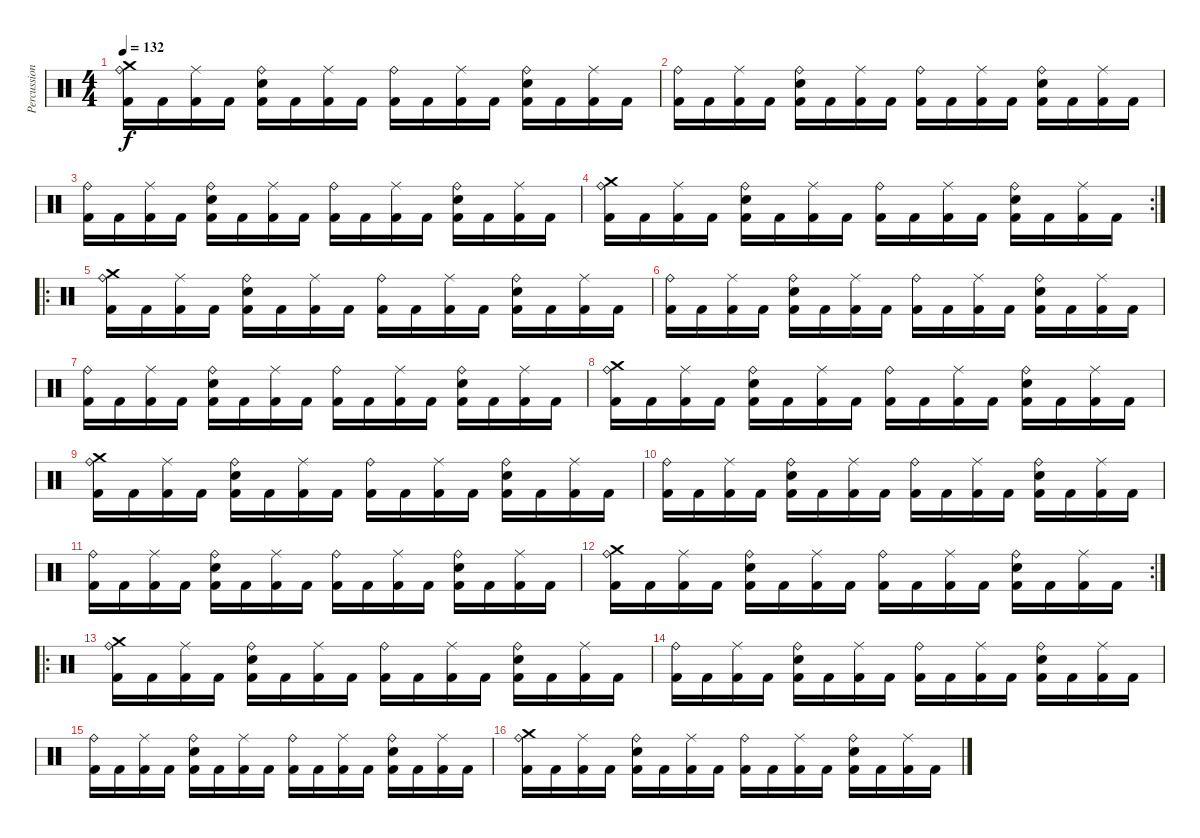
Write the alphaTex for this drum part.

\track ("Percussion" "Percussion") {instrument percussion}
\staff {score}
\articulation defaults
\ts (4 4)
\tempo 132
\clef neutral
\ks c
("Kick (hit) 2" "Ride (bell)" "Crash medium (hit)").16{dy f} "Kick (hit) 2".16 ("Kick (hit) 2" "Ride (middle)").16 "Kick (hit) 2".16 ("Kick (hit) 2" "Electric Snare (hit)" "Ride (bell)").16 "Kick (hit) 2".16 ("Kick (hit) 2" "Ride (middle)").16 "Kick (hit) 2".16 ("Kick (hit) 2" "Ride (bell)").16 "Kick (hit) 2".16 ("Kick (hit) 2" "Ride (middle)").16 "Kick (hit) 2".16 ("Kick (hit) 2" "Electric Snare (hit)" "Ride (bell)").16 "Kick (hit) 2".16 ("Kick (hit) 2" "Ride (middle)").16 "Kick (hit) 2".16 |
("Kick (hit) 2" "Ride (bell)").16 "Kick (hit) 2".16 ("Kick (hit) 2" "Ride (middle)").16 "Kick (hit) 2".16 ("Kick (hit) 2" "Electric Snare (hit)" "Ride (bell)").16 "Kick (hit) 2".16 ("Kick (hit) 2" "Ride (middle)").16 "Kick (hit) 2".16 ("Kick (hit) 2" "Ride (bell)").16 "Kick (hit) 2".16 ("Kick (hit) 2" "Ride (middle)").16 "Kick (hit) 2".16 ("Kick (hit) 2" "Electric Snare (hit)" "Ride (bell)").16 "Kick (hit) 2".16 ("Kick (hit) 2" "Ride (middle)").16 "Kick (hit) 2".16 |
("Kick (hit) 2" "Ride (bell)").16 "Kick (hit) 2".16 ("Kick (hit) 2" "Ride (middle)").16 "Kick (hit) 2".16 ("Kick (hit) 2" "Electric Snare (hit)" "Ride (bell)").16 "Kick (hit) 2".16 ("Kick (hit) 2" "Ride (middle)").16 "Kick (hit) 2".16 ("Kick (hit) 2" "Ride (bell)").16 "Kick (hit) 2".16 ("Kick (hit) 2" "Ride (middle)").16 "Kick (hit) 2".16 ("Kick (hit) 2" "Electric Snare (hit)" "Ride (bell)").16 "Kick (hit) 2".16 ("Kick (hit) 2" "Ride (middle)").16 "Kick (hit) 2".16 |
\rc 2
("Kick (hit) 2" "Ride (bell)" "Crash medium (hit)").16 "Kick (hit) 2".16 ("Kick (hit) 2" "Ride (middle)").16 "Kick (hit) 2".16 ("Kick (hit) 2" "Electric Snare (hit)" "Ride (bell)").16 "Kick (hit) 2".16 ("Kick (hit) 2" "Ride (middle)").16 "Kick (hit) 2".16 ("Kick (hit) 2" "Ride (bell)").16 "Kick (hit) 2".16 ("Kick (hit) 2" "Ride (middle)").16 "Kick (hit) 2".16 ("Kick (hit) 2" "Electric Snare (hit)" "Ride (bell)").16 "Kick (hit) 2".16 ("Kick (hit) 2" "Ride (middle)").16 "Kick (hit) 2".16 |
\ro
("Kick (hit) 2" "Ride (bell)" "Crash medium (hit)").16 "Kick (hit) 2".16 ("Kick (hit) 2" "Ride (middle)").16 "Kick (hit) 2".16 ("Kick (hit) 2" "Electric Snare (hit)" "Ride (bell)").16 "Kick (hit) 2".16 ("Kick (hit) 2" "Ride (middle)").16 "Kick (hit) 2".16 ("Kick (hit) 2" "Ride (bell)").16 "Kick (hit) 2".16 ("Kick (hit) 2" "Ride (middle)").16 "Kick (hit) 2".16 ("Kick (hit) 2" "Electric Snare (hit)" "Ride (bell)").16 "Kick (hit) 2".16 ("Kick (hit) 2" "Ride (middle)").16 "Kick (hit) 2".16 |
("Kick (hit) 2" "Ride (bell)").16 "Kick (hit) 2".16 ("Kick (hit) 2" "Ride (middle)").16 "Kick (hit) 2".16 ("Kick (hit) 2" "Electric Snare (hit)" "Ride (bell)").16 "Kick (hit) 2".16 ("Kick (hit) 2" "Ride (middle)").16 "Kick (hit) 2".16 ("Kick (hit) 2" "Ride (bell)").16 "Kick (hit) 2".16 ("Kick (hit) 2" "Ride (middle)").16 "Kick (hit) 2".16 ("Kick (hit) 2" "Electric Snare (hit)" "Ride (bell)").16 "Kick (hit) 2".16 ("Kick (hit) 2" "Ride (middle)").16 "Kick (hit) 2".16 |
("Kick (hit) 2" "Ride (bell)").16 "Kick (hit) 2".16 ("Kick (hit) 2" "Ride (middle)").16 "Kick (hit) 2".16 ("Kick (hit) 2" "Electric Snare (hit)" "Ride (bell)").16 "Kick (hit) 2".16 ("Kick (hit) 2" "Ride (middle)").16 "Kick (hit) 2".16 ("Kick (hit) 2" "Ride (bell)").16 "Kick (hit) 2".16 ("Kick (hit) 2" "Ride (middle)").16 "Kick (hit) 2".16 ("Kick (hit) 2" "Electric Snare (hit)" "Ride (bell)").16 "Kick (hit) 2".16 ("Kick (hit) 2" "Ride (middle)").16 "Kick (hit) 2".16 |
("Kick (hit) 2" "Ride (bell)" "Crash medium (hit)").16 "Kick (hit) 2".16 ("Kick (hit) 2" "Ride (middle)").16 "Kick (hit) 2".16 ("Kick (hit) 2" "Electric Snare (hit)" "Ride (bell)").16 "Kick (hit) 2".16 ("Kick (hit) 2" "Ride (middle)").16 "Kick (hit) 2".16 ("Kick (hit) 2" "Ride (bell)").16 "Kick (hit) 2".16 ("Kick (hit) 2" "Ride (middle)").16 "Kick (hit) 2".16 ("Kick (hit) 2" "Electric Snare (hit)" "Ride (bell)").16 "Kick (hit) 2".16 ("Kick (hit) 2" "Ride (middle)").16 "Kick (hit) 2".16 |
("Kick (hit) 2" "Ride (bell)" "Crash medium (hit)").16 "Kick (hit) 2".16 ("Kick (hit) 2" "Ride (middle)").16 "Kick (hit) 2".16 ("Kick (hit) 2" "Electric Snare (hit)" "Ride (bell)").16 "Kick (hit) 2".16 ("Kick (hit) 2" "Ride (middle)").16 "Kick (hit) 2".16 ("Kick (hit) 2" "Ride (bell)").16 "Kick (hit) 2".16 ("Kick (hit) 2" "Ride (middle)").16 "Kick (hit) 2".16 ("Kick (hit) 2" "Electric Snare (hit)" "Ride (bell)").16 "Kick (hit) 2".16 ("Kick (hit) 2" "Ride (middle)").16 "Kick (hit) 2".16 |
("Kick (hit) 2" "Ride (bell)").16 "Kick (hit) 2".16 ("Kick (hit) 2" "Ride (middle)").16 "Kick (hit) 2".16 ("Kick (hit) 2" "Electric Snare (hit)" "Ride (bell)").16 "Kick (hit) 2".16 ("Kick (hit) 2" "Ride (middle)").16 "Kick (hit) 2".16 ("Kick (hit) 2" "Ride (bell)").16 "Kick (hit) 2".16 ("Kick (hit) 2" "Ride (middle)").16 "Kick (hit) 2".16 ("Kick (hit) 2" "Electric Snare (hit)" "Ride (bell)").16 "Kick (hit) 2".16 ("Kick (hit) 2" "Ride (middle)").16 "Kick (hit) 2".16 |
("Kick (hit) 2" "Ride (bell)").16 "Kick (hit) 2".16 ("Kick (hit) 2" "Ride (middle)").16 "Kick (hit) 2".16 ("Kick (hit) 2" "Electric Snare (hit)" "Ride (bell)").16 "Kick (hit) 2".16 ("Kick (hit) 2" "Ride (middle)").16 "Kick (hit) 2".16 ("Kick (hit) 2" "Ride (bell)").16 "Kick (hit) 2".16 ("Kick (hit) 2" "Ride (middle)").16 "Kick (hit) 2".16 ("Kick (hit) 2" "Electric Snare (hit)" "Ride (bell)").16 "Kick (hit) 2".16 ("Kick (hit) 2" "Ride (middle)").16 "Kick (hit) 2".16 |
\rc 2
("Kick (hit) 2" "Ride (bell)" "Crash medium (hit)").16 "Kick (hit) 2".16 ("Kick (hit) 2" "Ride (middle)").16 "Kick (hit) 2".16 ("Kick (hit) 2" "Electric Snare (hit)" "Ride (bell)").16 "Kick (hit) 2".16 ("Kick (hit) 2" "Ride (middle)").16 "Kick (hit) 2".16 ("Kick (hit) 2" "Ride (bell)").16 "Kick (hit) 2".16 ("Kick (hit) 2" "Ride (middle)").16 "Kick (hit) 2".16 ("Kick (hit) 2" "Electric Snare (hit)" "Ride (bell)").16 "Kick (hit) 2".16 ("Kick (hit) 2" "Ride (middle)").16 "Kick (hit) 2".16 |
\ro
("Kick (hit) 2" "Ride (bell)" "Crash medium (hit)").16 "Kick (hit) 2".16 ("Kick (hit) 2" "Ride (middle)").16 "Kick (hit) 2".16 ("Kick (hit) 2" "Electric Snare (hit)" "Ride (bell)").16 "Kick (hit) 2".16 ("Kick (hit) 2" "Ride (middle)").16 "Kick (hit) 2".16 ("Kick (hit) 2" "Ride (bell)").16 "Kick (hit) 2".16 ("Kick (hit) 2" "Ride (middle)").16 "Kick (hit) 2".16 ("Kick (hit) 2" "Electric Snare (hit)" "Ride (bell)").16 "Kick (hit) 2".16 ("Kick (hit) 2" "Ride (middle)").16 "Kick (hit) 2".16 |
("Kick (hit) 2" "Ride (bell)").16 "Kick (hit) 2".16 ("Kick (hit) 2" "Ride (middle)").16 "Kick (hit) 2".16 ("Kick (hit) 2" "Electric Snare (hit)" "Ride (bell)").16 "Kick (hit) 2".16 ("Kick (hit) 2" "Ride (middle)").16 "Kick (hit) 2".16 ("Kick (hit) 2" "Ride (bell)").16 "Kick (hit) 2".16 ("Kick (hit) 2" "Ride (middle)").16 "Kick (hit) 2".16 ("Kick (hit) 2" "Electric Snare (hit)" "Ride (bell)").16 "Kick (hit) 2".16 ("Kick (hit) 2" "Ride (middle)").16 "Kick (hit) 2".16 |
("Kick (hit) 2" "Ride (bell)").16 "Kick (hit) 2".16 ("Kick (hit) 2" "Ride (middle)").16 "Kick (hit) 2".16 ("Kick (hit) 2" "Electric Snare (hit)" "Ride (bell)").16 "Kick (hit) 2".16 ("Kick (hit) 2" "Ride (middle)").16 "Kick (hit) 2".16 ("Kick (hit) 2" "Ride (bell)").16 "Kick (hit) 2".16 ("Kick (hit) 2" "Ride (middle)").16 "Kick (hit) 2".16 ("Kick (hit) 2" "Electric Snare (hit)" "Ride (bell)").16 "Kick (hit) 2".16 ("Kick (hit) 2" "Ride (middle)").16 "Kick (hit) 2".16 |
("Kick (hit) 2" "Ride (bell)" "Crash medium (hit)").16 "Kick (hit) 2".16 ("Kick (hit) 2" "Ride (middle)").16 "Kick (hit) 2".16 ("Kick (hit) 2" "Electric Snare (hit)" "Ride (bell)").16 "Kick (hit) 2".16 ("Kick (hit) 2" "Ride (middle)").16 "Kick (hit) 2".16 ("Kick (hit) 2" "Ride (bell)").16 "Kick (hit) 2".16 ("Kick (hit) 2" "Ride (middle)").16 "Kick (hit) 2".16 ("Kick (hit) 2" "Electric Snare (hit)" "Ride (bell)").16 "Kick (hit) 2".16 ("Kick (hit) 2" "Ride (middle)").16 "Kick (hit) 2".16
